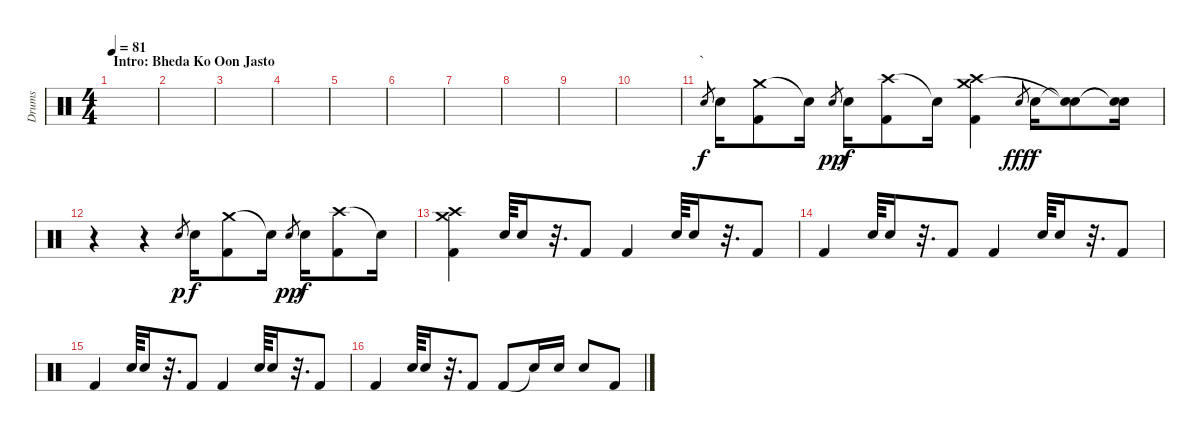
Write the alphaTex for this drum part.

\track ("Drums" "Drums") {instrument percussion}
\staff {score}
\articulation defaults
\ts (4 4)
\section ("" "Intro: Bheda Ko Oon Jasto")
\tempo 81
\clef neutral
\ks c
|
|
|
|
|
|
|
|
|
|
\section ("" "`")
"Electric Snare (hit)".8{gr} "Electric Snare (hit)".16{dy f} ("Crash medium (hit)" "Kick (hit) 2").8 "Snare (hit)"{t}.16 "Electric Snare (hit)".8{gr dy pp} "Electric Snare (hit)".16{dy f} ("Crash high (hit)" "Kick (hit) 2").8 "Snare (hit)"{t}.16 ("Crash high (hit)" "Crash medium (hit)" "Kick (hit) 2").4 "Electric Snare (hit)".8{gr dy fff} "Electric Snare (hit)".16{dy f} ("Snare (hit)"{t} "Snare (hit)"{t}).8 ("Snare (hit)"{t} "Snare (hit)"{t}).16 |
r.4 r.4 "Electric Snare (hit)".8{gr dy p} "Electric Snare (hit)".16{dy f} ("Crash medium (hit)" "Kick (hit) 2").8 "Snare (hit)"{t}.16 "Electric Snare (hit)".8{gr dy pp} "Electric Snare (hit)".16{dy f} ("Crash high (hit)" "Kick (hit) 2").8 "Snare (hit)"{t}.16 |
("Crash high (hit)" "Crash medium (hit)" "Kick (hit) 2").4 "Electric Snare (hit)".64 "Electric Snare (hit)".16 r.32{d} "Kick (hit) 2".8 "Kick (hit) 2".4 "Electric Snare (hit)".64 "Electric Snare (hit)".16 r.32{d} "Kick (hit) 2".8 |
"Kick (hit) 2".4 "Electric Snare (hit)".64 "Electric Snare (hit)".16 r.32{d} "Kick (hit) 2".8 "Kick (hit) 2".4 "Electric Snare (hit)".64 "Electric Snare (hit)".16 r.32{d} "Kick (hit) 2".8 |
"Kick (hit) 2".4 "Electric Snare (hit)".64 "Electric Snare (hit)".16 r.32{d} "Kick (hit) 2".8 "Kick (hit) 2".4 "Electric Snare (hit)".64 "Electric Snare (hit)".16 r.32{d} "Kick (hit) 2".8 |
"Kick (hit) 2".4 "Electric Snare (hit)".64 "Electric Snare (hit)".16 r.32{d} "Kick (hit) 2".8 "Kick (hit) 2".8 "Snare (hit)"{t}.16 "Electric Snare (hit)".16 "Electric Snare (hit)".8 "Kick (hit) 2".8
